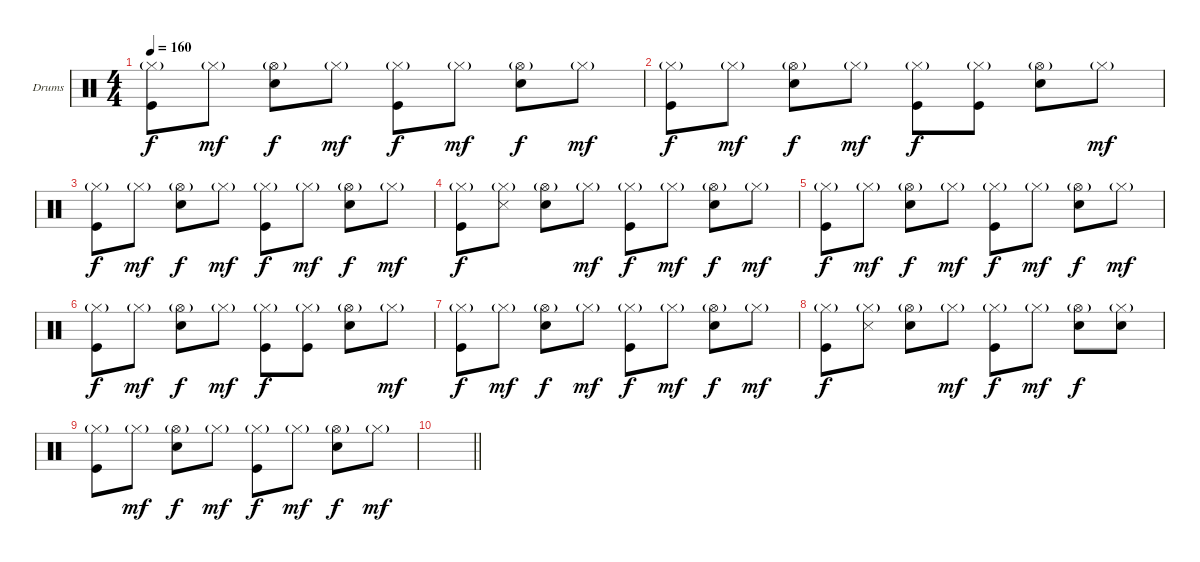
\bracketExtendMode groupsimilarinstruments
\firstSystemTrackNameOrientation horizontal
\otherSystemsTrackNameOrientation horizontal
\track ("Гурьянов" "Drums") {instrument percussion}
\staff {score}
\articulation defaults
\ts (4 4)
\tempo 160
\clef neutral
\scale
0.333333
\ks c
("Hi-Hat (closed)"{g} "Kick (hit)").8{dy f} "Hi-Hat (closed)"{g}.8{dy mf} ("Hi-Hat (open)"{g} "Snare (hit) 2").8{dy f} "Hi-Hat (closed)"{g}.8{dy mf} ("Hi-Hat (closed)"{g} "Kick (hit)").8{dy f} "Hi-Hat (closed)"{g}.8{dy mf} ("Hi-Hat (open)"{g} "Snare (hit) 2").8{dy f} "Hi-Hat (closed)"{g}.8{dy mf} |
\scale
0.333333 ("Hi-Hat (closed)"{g} "Kick (hit)").8{dy f} "Hi-Hat (closed)"{g}.8{dy mf} ("Hi-Hat (open)"{g} "Snare (hit) 2").8{dy f} "Hi-Hat (closed)"{g}.8{dy mf} ("Hi-Hat (closed)"{g} "Kick (hit)").8{dy f} ("Hi-Hat (closed)"{g} "Kick (hit)").8 ("Hi-Hat (open)"{g} "Snare (hit) 2").8 "Hi-Hat (closed)"{g}.8{dy mf} |
\scale
0.333333 ("Hi-Hat (closed)"{g} "Kick (hit)").8{dy f} "Hi-Hat (closed)"{g}.8{dy mf} ("Hi-Hat (open)"{g} "Snare (hit) 2").8{dy f} "Hi-Hat (closed)"{g}.8{dy mf} ("Hi-Hat (closed)"{g} "Kick (hit)").8{dy f} "Hi-Hat (closed)"{g}.8{dy mf} ("Hi-Hat (open)"{g} "Snare (hit) 2").8{dy f} "Hi-Hat (closed)"{g}.8{dy mf} |
\scale
0.333333 ("Hi-Hat (closed)"{g} "Kick (hit)").8{dy f} ("Hi-Hat (closed)"{g} "Snare (side stick) 3").8 ("Hi-Hat (open)"{g} "Snare (hit) 2").8 "Hi-Hat (closed)"{g}.8{dy mf} ("Hi-Hat (closed)"{g} "Kick (hit)").8{dy f} "Hi-Hat (closed)"{g}.8{dy mf} ("Hi-Hat (open)"{g} "Snare (hit) 2").8{dy f} "Hi-Hat (closed)"{g}.8{dy mf} |
\scale
0.333333 ("Hi-Hat (closed)"{g} "Kick (hit)").8{dy f} "Hi-Hat (closed)"{g}.8{dy mf} ("Hi-Hat (open)"{g} "Snare (hit) 2").8{dy f} "Hi-Hat (closed)"{g}.8{dy mf} ("Hi-Hat (closed)"{g} "Kick (hit)").8{dy f} "Hi-Hat (closed)"{g}.8{dy mf} ("Hi-Hat (open)"{g} "Snare (hit) 2").8{dy f} "Hi-Hat (closed)"{g}.8{dy mf} |
\scale
0.333333 ("Hi-Hat (closed)"{g} "Kick (hit)").8{dy f} "Hi-Hat (closed)"{g}.8{dy mf} ("Hi-Hat (open)"{g} "Snare (hit) 2").8{dy f} "Hi-Hat (closed)"{g}.8{dy mf} ("Hi-Hat (closed)"{g} "Kick (hit)").8{dy f} ("Hi-Hat (closed)"{g} "Kick (hit)").8 ("Hi-Hat (open)"{g} "Snare (hit) 2").8 "Hi-Hat (closed)"{g}.8{dy mf} |
\scale
0.333333 ("Hi-Hat (closed)"{g} "Kick (hit)").8{dy f} "Hi-Hat (closed)"{g}.8{dy mf} ("Hi-Hat (open)"{g} "Snare (hit) 2").8{dy f} "Hi-Hat (closed)"{g}.8{dy mf} ("Hi-Hat (closed)"{g} "Kick (hit)").8{dy f} "Hi-Hat (closed)"{g}.8{dy mf} ("Hi-Hat (open)"{g} "Snare (hit) 2").8{dy f} "Hi-Hat (closed)"{g}.8{dy mf} |
\scale
0.333333 ("Hi-Hat (closed)"{g} "Kick (hit)").8{dy f} ("Hi-Hat (closed)"{g} "Snare (side stick) 3").8 ("Hi-Hat (open)"{g} "Snare (hit) 2").8 "Hi-Hat (closed)"{g}.8{dy mf} ("Hi-Hat (closed)"{g} "Kick (hit)").8{dy f} "Hi-Hat (closed)"{g}.8{dy mf} ("Hi-Hat (open)"{g} "Snare (hit) 2").8{dy f} ("Hi-Hat (closed)"{g} "Snare (hit) 2").8 |
\scale
0.333333 ("Hi-Hat (closed)"{g} "Kick (hit)").8 "Hi-Hat (closed)"{g}.8{dy mf} ("Hi-Hat (open)"{g} "Snare (hit) 2").8{dy f} "Hi-Hat (closed)"{g}.8{dy mf} ("Hi-Hat (closed)"{g} "Kick (hit)").8{dy f} "Hi-Hat (closed)"{g}.8{dy mf} ("Hi-Hat (open)"{g} "Snare (hit) 2").8{dy f} "Hi-Hat (closed)"{g}.8{dy mf} |
\scale
0.333333
\barLineRight lightlight
|
\scale
0.0641026 |
\scale
0.305972 |
\scale
0.628369 |
\scale
0.333333 |
\scale
0.333333 |
\scale
0.333333
